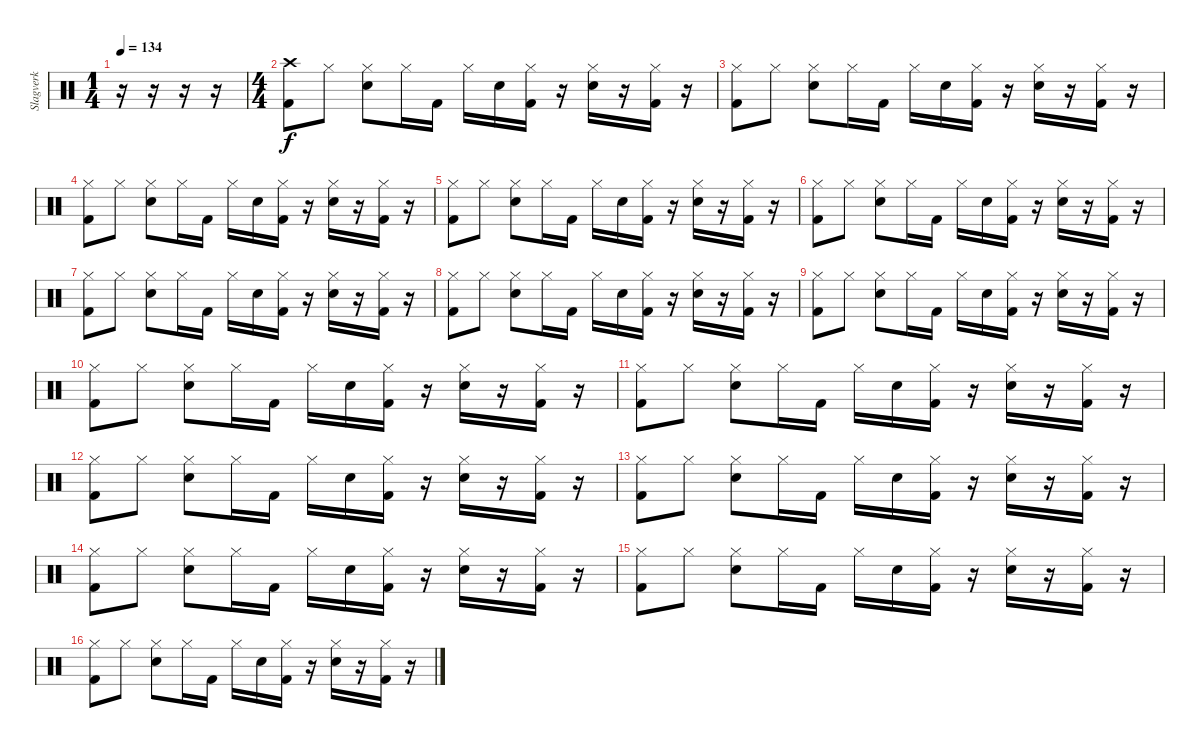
\track ("Slagverk" "Slagverk") {instrument percussion}
\staff {score}
\articulation defaults
\ts (1 4)
\tempo 134
\clef neutral
\ks c
r.16{dy f} r.16 r.16 r.16 |
\ts (4 4)
("Crash high (hit)" "Kick (hit) 2").8 "Hi-Hat (closed)".8 ("Hi-Hat (closed)" "Electric Snare (hit)").8 "Hi-Hat (closed)".16 "Kick (hit) 2".16 "Hi-Hat (closed)".16 "Electric Snare (hit)".16 ("Hi-Hat (closed)" "Kick (hit) 2").16 r.16 ("Hi-Hat (closed)" "Electric Snare (hit)").16 r.16 ("Hi-Hat (closed)" "Kick (hit) 2").16 r.16 |
("Hi-Hat (closed)" "Kick (hit) 2").8 "Hi-Hat (closed)".8 ("Hi-Hat (closed)" "Electric Snare (hit)").8 "Hi-Hat (closed)".16 "Kick (hit) 2".16 "Hi-Hat (closed)".16 "Electric Snare (hit)".16 ("Hi-Hat (closed)" "Kick (hit) 2").16 r.16 ("Hi-Hat (closed)" "Electric Snare (hit)").16 r.16 ("Hi-Hat (closed)" "Kick (hit) 2").16 r.16 |
("Hi-Hat (closed)" "Kick (hit) 2").8 "Hi-Hat (closed)".8 ("Hi-Hat (closed)" "Electric Snare (hit)").8 "Hi-Hat (closed)".16 "Kick (hit) 2".16 "Hi-Hat (closed)".16 "Electric Snare (hit)".16 ("Hi-Hat (closed)" "Kick (hit) 2").16 r.16 ("Hi-Hat (closed)" "Electric Snare (hit)").16 r.16 ("Hi-Hat (closed)" "Kick (hit) 2").16 r.16 |
("Hi-Hat (closed)" "Kick (hit) 2").8 "Hi-Hat (closed)".8 ("Hi-Hat (closed)" "Electric Snare (hit)").8 "Hi-Hat (closed)".16 "Kick (hit) 2".16 "Hi-Hat (closed)".16 "Electric Snare (hit)".16 ("Hi-Hat (closed)" "Kick (hit) 2").16 r.16 ("Hi-Hat (closed)" "Electric Snare (hit)").16 r.16 ("Hi-Hat (closed)" "Kick (hit) 2").16 r.16 |
("Hi-Hat (closed)" "Kick (hit) 2").8 "Hi-Hat (closed)".8 ("Hi-Hat (closed)" "Electric Snare (hit)").8 "Hi-Hat (closed)".16 "Kick (hit) 2".16 "Hi-Hat (closed)".16 "Electric Snare (hit)".16 ("Hi-Hat (closed)" "Kick (hit) 2").16 r.16 ("Hi-Hat (closed)" "Electric Snare (hit)").16 r.16 ("Hi-Hat (closed)" "Kick (hit) 2").16 r.16 |
("Hi-Hat (closed)" "Kick (hit) 2").8 "Hi-Hat (closed)".8 ("Hi-Hat (closed)" "Electric Snare (hit)").8 "Hi-Hat (closed)".16 "Kick (hit) 2".16 "Hi-Hat (closed)".16 "Electric Snare (hit)".16 ("Hi-Hat (closed)" "Kick (hit) 2").16 r.16 ("Hi-Hat (closed)" "Electric Snare (hit)").16 r.16 ("Hi-Hat (closed)" "Kick (hit) 2").16 r.16 |
("Hi-Hat (closed)" "Kick (hit) 2").8 "Hi-Hat (closed)".8 ("Hi-Hat (closed)" "Electric Snare (hit)").8 "Hi-Hat (closed)".16 "Kick (hit) 2".16 "Hi-Hat (closed)".16 "Electric Snare (hit)".16 ("Hi-Hat (closed)" "Kick (hit) 2").16 r.16 ("Hi-Hat (closed)" "Electric Snare (hit)").16 r.16 ("Hi-Hat (closed)" "Kick (hit) 2").16 r.16 |
("Hi-Hat (closed)" "Kick (hit) 2").8 "Hi-Hat (closed)".8 ("Hi-Hat (closed)" "Electric Snare (hit)").8 "Hi-Hat (closed)".16 "Kick (hit) 2".16 "Hi-Hat (closed)".16 "Electric Snare (hit)".16 ("Hi-Hat (closed)" "Kick (hit) 2").16 r.16 ("Hi-Hat (closed)" "Electric Snare (hit)").16 r.16 ("Hi-Hat (closed)" "Kick (hit) 2").16 r.16 |
("Hi-Hat (closed)" "Kick (hit) 2").8 "Hi-Hat (closed)".8 ("Hi-Hat (closed)" "Electric Snare (hit)").8 "Hi-Hat (closed)".16 "Kick (hit) 2".16 "Hi-Hat (closed)".16 "Electric Snare (hit)".16 ("Hi-Hat (closed)" "Kick (hit) 2").16 r.16 ("Hi-Hat (closed)" "Electric Snare (hit)").16 r.16 ("Hi-Hat (closed)" "Kick (hit) 2").16 r.16 |
("Hi-Hat (closed)" "Kick (hit) 2").8 "Hi-Hat (closed)".8 ("Hi-Hat (closed)" "Electric Snare (hit)").8 "Hi-Hat (closed)".16 "Kick (hit) 2".16 "Hi-Hat (closed)".16 "Electric Snare (hit)".16 ("Hi-Hat (closed)" "Kick (hit) 2").16 r.16 ("Hi-Hat (closed)" "Electric Snare (hit)").16 r.16 ("Hi-Hat (closed)" "Kick (hit) 2").16 r.16 |
("Hi-Hat (closed)" "Kick (hit) 2").8 "Hi-Hat (closed)".8 ("Hi-Hat (closed)" "Electric Snare (hit)").8 "Hi-Hat (closed)".16 "Kick (hit) 2".16 "Hi-Hat (closed)".16 "Electric Snare (hit)".16 ("Hi-Hat (closed)" "Kick (hit) 2").16 r.16 ("Hi-Hat (closed)" "Electric Snare (hit)").16 r.16 ("Hi-Hat (closed)" "Kick (hit) 2").16 r.16 |
("Hi-Hat (closed)" "Kick (hit) 2").8 "Hi-Hat (closed)".8 ("Hi-Hat (closed)" "Electric Snare (hit)").8 "Hi-Hat (closed)".16 "Kick (hit) 2".16 "Hi-Hat (closed)".16 "Electric Snare (hit)".16 ("Hi-Hat (closed)" "Kick (hit) 2").16 r.16 ("Hi-Hat (closed)" "Electric Snare (hit)").16 r.16 ("Hi-Hat (closed)" "Kick (hit) 2").16 r.16 |
("Hi-Hat (closed)" "Kick (hit) 2").8 "Hi-Hat (closed)".8 ("Hi-Hat (closed)" "Electric Snare (hit)").8 "Hi-Hat (closed)".16 "Kick (hit) 2".16 "Hi-Hat (closed)".16 "Electric Snare (hit)".16 ("Hi-Hat (closed)" "Kick (hit) 2").16 r.16 ("Hi-Hat (closed)" "Electric Snare (hit)").16 r.16 ("Hi-Hat (closed)" "Kick (hit) 2").16 r.16 |
("Hi-Hat (closed)" "Kick (hit) 2").8 "Hi-Hat (closed)".8 ("Hi-Hat (closed)" "Electric Snare (hit)").8 "Hi-Hat (closed)".16 "Kick (hit) 2".16 "Hi-Hat (closed)".16 "Electric Snare (hit)".16 ("Hi-Hat (closed)" "Kick (hit) 2").16 r.16 ("Hi-Hat (closed)" "Electric Snare (hit)").16 r.16 ("Hi-Hat (closed)" "Kick (hit) 2").16 r.16 |
("Hi-Hat (closed)" "Kick (hit) 2").8 "Hi-Hat (closed)".8 ("Hi-Hat (closed)" "Electric Snare (hit)").8 "Hi-Hat (closed)".16 "Kick (hit) 2".16 "Hi-Hat (closed)".16 "Electric Snare (hit)".16 ("Hi-Hat (closed)" "Kick (hit) 2").16 r.16 ("Hi-Hat (closed)" "Electric Snare (hit)").16 r.16 ("Hi-Hat (closed)" "Kick (hit) 2").16 r.16
